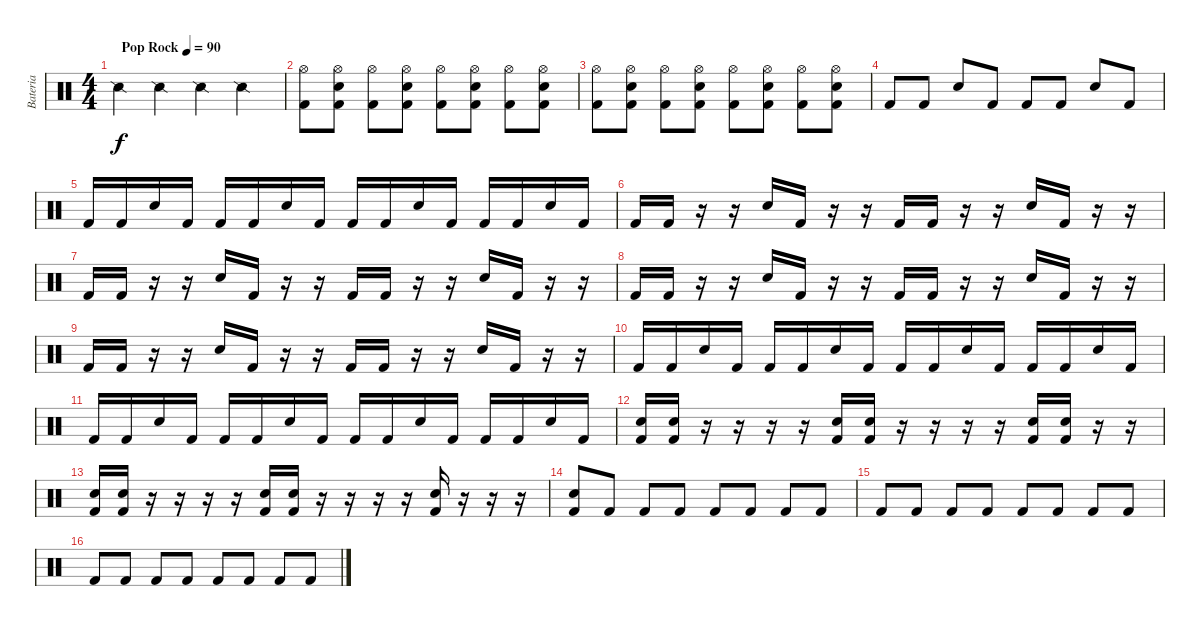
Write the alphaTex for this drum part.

\track ("Bateria" "Bateria") {instrument percussion}
\staff {score}
\articulation defaults
\ts (4 4)
\tempo (90 "Pop Rock")
\clef neutral
\ks c "Snare (side stick) 2".4{dy f} "Snare (side stick) 2".4 "Snare (side stick) 2".4 "Snare (side stick) 2".4
|
("Kick (hit) 2" "Hi-Hat (open)").8 ("Kick (hit) 2" "Electric Snare (hit)" "Hi-Hat (open)").8 ("Kick (hit) 2" "Hi-Hat (open)").8 ("Kick (hit) 2" "Electric Snare (hit)" "Hi-Hat (open)").8 ("Kick (hit) 2" "Hi-Hat (open)").8 ("Kick (hit) 2" "Electric Snare (hit)" "Hi-Hat (open)").8 ("Kick (hit) 2" "Hi-Hat (open)").8 ("Kick (hit) 2" "Electric Snare (hit)" "Hi-Hat (open)").8 |
("Kick (hit) 2" "Hi-Hat (open)").8 ("Kick (hit) 2" "Electric Snare (hit)" "Hi-Hat (open)").8 ("Kick (hit) 2" "Hi-Hat (open)").8 ("Kick (hit) 2" "Electric Snare (hit)" "Hi-Hat (open)").8 ("Kick (hit) 2" "Hi-Hat (open)").8 ("Kick (hit) 2" "Electric Snare (hit)" "Hi-Hat (open)").8 ("Kick (hit) 2" "Hi-Hat (open)").8 ("Kick (hit) 2" "Electric Snare (hit)" "Hi-Hat (open)").8 |
"Kick (hit) 2".8 "Kick (hit) 2".8 "Electric Snare (hit)".8 "Kick (hit) 2".8 "Kick (hit) 2".8 "Kick (hit) 2".8 "Electric Snare (hit)".8 "Kick (hit) 2".8 |
"Kick (hit) 2".16 "Kick (hit) 2".16 "Electric Snare (hit)".16 "Kick (hit) 2".16 "Kick (hit) 2".16 "Kick (hit) 2".16 "Electric Snare (hit)".16 "Kick (hit) 2".16 "Kick (hit) 2".16 "Kick (hit) 2".16 "Electric Snare (hit)".16 "Kick (hit) 2".16 "Kick (hit) 2".16 "Kick (hit) 2".16 "Electric Snare (hit)".16 "Kick (hit) 2".16 |
"Kick (hit) 2".16 "Kick (hit) 2".16 r.16 r.16 "Electric Snare (hit)".16 "Kick (hit) 2".16 r.16 r.16 "Kick (hit) 2".16 "Kick (hit) 2".16 r.16 r.16 "Electric Snare (hit)".16 "Kick (hit) 2".16 r.16 r.16 |
"Kick (hit) 2".16 "Kick (hit) 2".16 r.16 r.16 "Electric Snare (hit)".16 "Kick (hit) 2".16 r.16 r.16 "Kick (hit) 2".16 "Kick (hit) 2".16 r.16 r.16 "Electric Snare (hit)".16 "Kick (hit) 2".16 r.16 r.16 |
"Kick (hit) 2".16 "Kick (hit) 2".16 r.16 r.16 "Electric Snare (hit)".16 "Kick (hit) 2".16 r.16 r.16 "Kick (hit) 2".16 "Kick (hit) 2".16 r.16 r.16 "Electric Snare (hit)".16 "Kick (hit) 2".16 r.16 r.16 |
"Kick (hit) 2".16 "Kick (hit) 2".16 r.16 r.16 "Electric Snare (hit)".16 "Kick (hit) 2".16 r.16 r.16 "Kick (hit) 2".16 "Kick (hit) 2".16 r.16 r.16 "Electric Snare (hit)".16 "Kick (hit) 2".16 r.16 r.16 |
"Kick (hit) 2".16 "Kick (hit) 2".16 "Electric Snare (hit)".16 "Kick (hit) 2".16 "Kick (hit) 2".16 "Kick (hit) 2".16 "Electric Snare (hit)".16 "Kick (hit) 2".16 "Kick (hit) 2".16 "Kick (hit) 2".16 "Electric Snare (hit)".16 "Kick (hit) 2".16 "Kick (hit) 2".16 "Kick (hit) 2".16 "Electric Snare (hit)".16 "Kick (hit) 2".16 |
"Kick (hit) 2".16 "Kick (hit) 2".16 "Electric Snare (hit)".16 "Kick (hit) 2".16 "Kick (hit) 2".16 "Kick (hit) 2".16 "Electric Snare (hit)".16 "Kick (hit) 2".16 "Kick (hit) 2".16 "Kick (hit) 2".16 "Electric Snare (hit)".16 "Kick (hit) 2".16 "Kick (hit) 2".16 "Kick (hit) 2".16 "Electric Snare (hit)".16 "Kick (hit) 2".16 |
("Kick (hit) 2" "Electric Snare (hit)").16 ("Kick (hit) 2" "Electric Snare (hit)").16 r.16 r.16 r.16 r.16 ("Kick (hit) 2" "Electric Snare (hit)").16 ("Kick (hit) 2" "Electric Snare (hit)").16 r.16 r.16 r.16 r.16 ("Kick (hit) 2" "Electric Snare (hit)").16 ("Kick (hit) 2" "Electric Snare (hit)").16 r.16 r.16 |
("Kick (hit) 2" "Electric Snare (hit)").16 ("Kick (hit) 2" "Electric Snare (hit)").16 r.16 r.16 r.16 r.16 ("Kick (hit) 2" "Electric Snare (hit)").16 ("Kick (hit) 2" "Electric Snare (hit)").16 r.16 r.16 r.16 r.16 ("Kick (hit) 2" "Electric Snare (hit)").16 r.16 r.16 r.16 |
("Kick (hit) 2" "Electric Snare (hit)").8 "Kick (hit) 2".8 "Kick (hit) 2".8 "Kick (hit) 2".8 "Kick (hit) 2".8 "Kick (hit) 2".8 "Kick (hit) 2".8 "Kick (hit) 2".8 |
"Kick (hit) 2".8 "Kick (hit) 2".8 "Kick (hit) 2".8 "Kick (hit) 2".8 "Kick (hit) 2".8 "Kick (hit) 2".8 "Kick (hit) 2".8 "Kick (hit) 2".8 |
"Kick (hit) 2".8 "Kick (hit) 2".8 "Kick (hit) 2".8 "Kick (hit) 2".8 "Kick (hit) 2".8 "Kick (hit) 2".8 "Kick (hit) 2".8 "Kick (hit) 2".8
